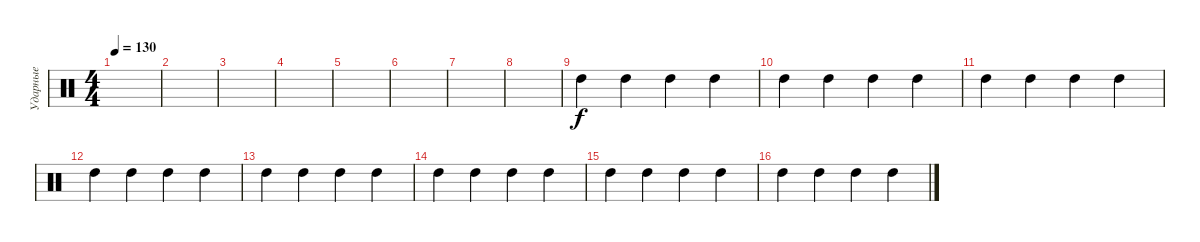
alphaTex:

\track ("Ударные" "Ударные") {instrument percussion}
\staff {score}
\articulation defaults
\ts (4 4)
\tempo 130
\clef neutral
\ks c
|
|
|
|
|
|
|
|
"High Tom (hit)".4 "High Tom (hit)".4 "High Tom (hit)".4 "High Tom (hit)".4 |
"High Tom (hit)".4 "High Tom (hit)".4 "High Tom (hit)".4 "High Tom (hit)".4 |
"High Tom (hit)".4 "High Tom (hit)".4 "High Tom (hit)".4 "High Tom (hit)".4 |
"High Tom (hit)".4 "High Tom (hit)".4 "High Tom (hit)".4 "High Tom (hit)".4 |
"High Tom (hit)".4 "High Tom (hit)".4 "High Tom (hit)".4 "High Tom (hit)".4 |
"High Tom (hit)".4 "High Tom (hit)".4 "High Tom (hit)".4 "High Tom (hit)".4 |
"High Tom (hit)".4 "High Tom (hit)".4 "High Tom (hit)".4 "High Tom (hit)".4 |
"High Tom (hit)".4 "High Tom (hit)".4 "High Tom (hit)".4 "High Tom (hit)".4
